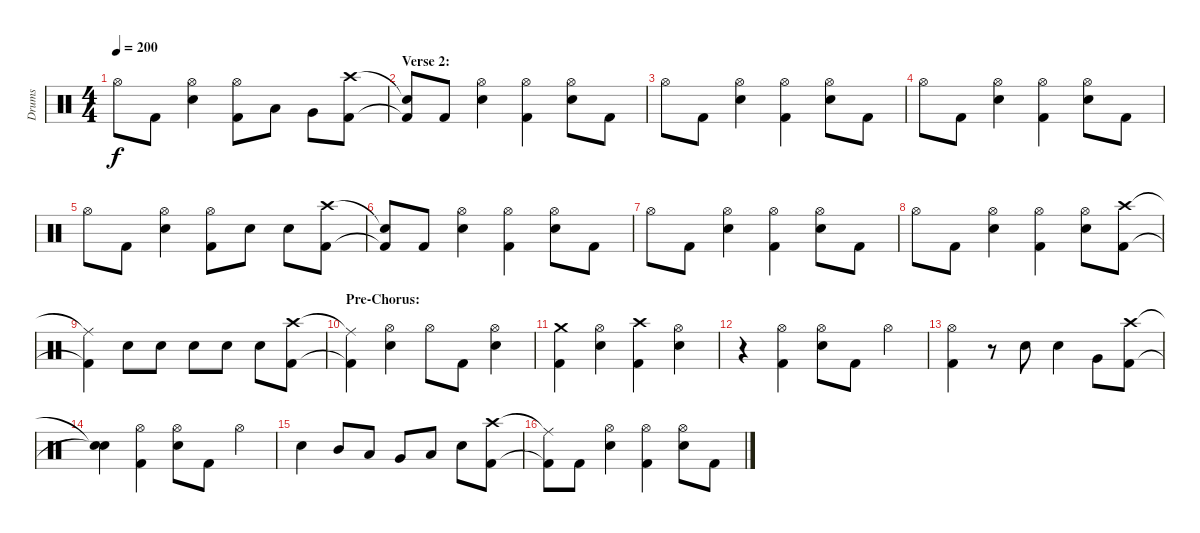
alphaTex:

\track ("Drums" "Drums") {instrument percussion}
\staff {score}
\articulation defaults
\ts (4 4)
\tempo 200
\clef neutral
\ks c "Hi-Hat (open)".8{dy f} "Kick (hit) 2".8
("Hi-Hat (open)" "Electric Snare (hit)").4 ("Hi-Hat (open)" "Kick (hit) 2").8 "Low Tom (hit)".8 "Very Low Tom (hit)".8 ("Crash high (hit)" "Kick (hit) 2").8 |
\section ("" "Verse 2:")
("Snare (hit)"{t} "Kick (hit) 2"{t}).8 "Kick (hit) 2".8 ("Hi-Hat (open)" "Electric Snare (hit)").4 ("Hi-Hat (open)" "Kick (hit) 2").4 ("Hi-Hat (open)" "Electric Snare (hit)").8 "Kick (hit) 2".8 |
"Hi-Hat (open)".8 "Kick (hit) 2".8 ("Hi-Hat (open)" "Electric Snare (hit)").4 ("Hi-Hat (open)" "Kick (hit) 2").4 ("Hi-Hat (open)" "Electric Snare (hit)").8 "Kick (hit) 2".8 |
"Hi-Hat (open)".8 "Kick (hit) 2".8 ("Hi-Hat (open)" "Electric Snare (hit)").4 ("Hi-Hat (open)" "Kick (hit) 2").4 ("Hi-Hat (open)" "Electric Snare (hit)").8 "Kick (hit) 2".8 |
"Hi-Hat (open)".8 "Kick (hit) 2".8 ("Hi-Hat (open)" "Electric Snare (hit)").4 ("Hi-Hat (open)" "Kick (hit) 2").8 "Electric Snare (hit)".8 "Electric Snare (hit)".8 ("Crash high (hit)" "Kick (hit) 2").8 |
("Snare (hit)"{t} "Kick (hit) 2"{t}).8 "Kick (hit) 2".8 ("Hi-Hat (open)" "Electric Snare (hit)").4 ("Hi-Hat (open)" "Kick (hit) 2").4 ("Hi-Hat (open)" "Electric Snare (hit)").8 "Kick (hit) 2".8 |
"Hi-Hat (open)".8 "Kick (hit) 2".8 ("Hi-Hat (open)" "Electric Snare (hit)").4 ("Hi-Hat (open)" "Kick (hit) 2").4 ("Hi-Hat (open)" "Electric Snare (hit)").8 "Kick (hit) 2".8 |
"Hi-Hat (open)".8 "Kick (hit) 2".8 ("Hi-Hat (open)" "Electric Snare (hit)").4 ("Hi-Hat (open)" "Kick (hit) 2").4 ("Hi-Hat (open)" "Electric Snare (hit)").8 ("Crash high (hit)" "Kick (hit) 2").8 |
("Ride (middle)"{t} "Kick (hit) 2"{t}).4 "Electric Snare (hit)".8 "Electric Snare (hit)".8 "Electric Snare (hit)".8 "Electric Snare (hit)".8 "Electric Snare (hit)".8 ("Crash high (hit)" "Kick (hit) 2").8 |
\section ("" "Pre-Chorus:")
("Ride (middle)"{t} "Kick (hit) 2"{t}).4 ("Hi-Hat (open)" "Electric Snare (hit)").4 "Hi-Hat (open)".8 "Kick (hit) 2".8 ("Hi-Hat (open)" "Electric Snare (hit)").4 |
("Crash medium (hit)" "Kick (hit) 2").4 ("Hi-Hat (open)" "Electric Snare (hit)").4 ("Crash high (hit)" "Kick (hit) 2").4 ("Hi-Hat (open)" "Electric Snare (hit)").4 |
r.4 ("Hi-Hat (open)" "Kick (hit) 2").4 ("Hi-Hat (open)" "Electric Snare (hit)").8 "Kick (hit) 2".8 "Hi-Hat (open)".4 |
("Hi-Hat (open)" "Kick (hit) 2").4 r.8 "Electric Snare (hit)".8 "Electric Snare (hit)".4 "Very Low Tom (hit)".8 ("Crash high (hit)" "Kick (hit) 2").8 |
("Snare (hit)"{t} "Snare (hit)"{t}).4 ("Hi-Hat (open)" "Kick (hit) 2").4 ("Hi-Hat (open)" "Electric Snare (hit)").8 "Kick (hit) 2".8 "Hi-Hat (open)".4 |
"Electric Snare (hit)".4 "Mid Tom (hit)".8 "Low Tom (hit)".8 "Very Low Tom (hit)".8 "Low Floor Tom (hit)".8 "Electric Snare (hit)".8 ("Crash high (hit)" "Kick (hit) 2").8 |
("Ride (middle)"{t} "Kick (hit) 2"{t}).8 "Kick (hit) 2".8 ("Hi-Hat (open)" "Electric Snare (hit)").4 ("Hi-Hat (open)" "Kick (hit) 2").4 ("Hi-Hat (open)" "Electric Snare (hit)").8 "Kick (hit) 2".8
